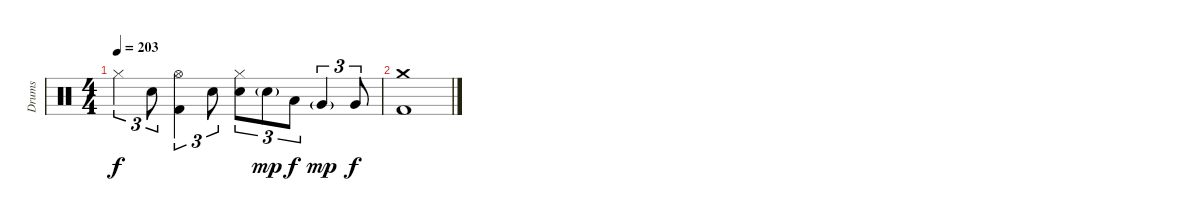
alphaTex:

\track ("Drums" "Drums") {instrument percussion}
\staff {score}
\articulation defaults
\ts (4 4)
\tempo 203
\clef neutral
\ks c "Hi-Hat (closed)".4{tu (3 2) dy f} "Electric Snare (hit)".8{tu (3 2)}
("Hi-Hat (open)" "Kick (hit) 2").4{tu (3 2)} "Electric Snare (hit)".8{tu (3 2)} ("Hi-Hat (closed)" "Electric Snare (hit)").8{tu (3 2)} "Electric Snare (hit)"{g}.8{tu (3 2) dy mp} "Low Tom (hit)".8{tu (3 2) dy f} "Very Low Tom (hit)"{g}.4{tu (3 2) dy mp} "Very Low Tom (hit)".8{tu (3 2) dy f} |
("Crash medium (hit)" "Kick (hit) 2").1
